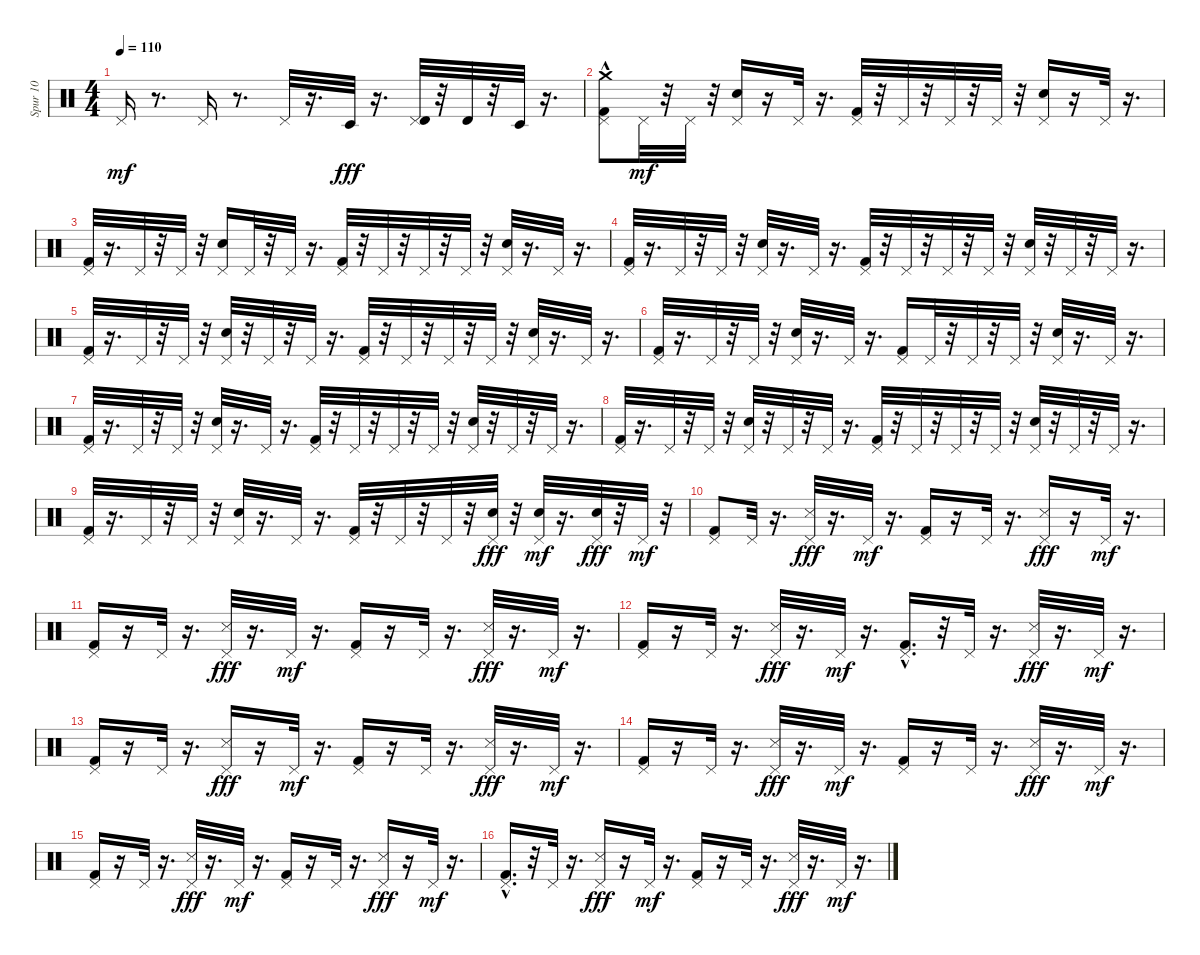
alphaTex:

\track ("Spur 10" "Spur 10") {instrument percussion}
\staff {score}
\articulation defaults
\ts (4 4)
\tempo 110
\clef neutral
\ks c "Pedal Hi-Hat (hit)".16{dy mf}
r.8{d} "Pedal Hi-Hat (hit)".16 r.8{d} "Pedal Hi-Hat (hit)".32 r.16{d} "Timbale low (hit)".32{dy fff} r.16{d} ("Pedal Hi-Hat (hit)" "Timbale high (hit)").32 r.32 "Timbale high (hit)".32 r.32 "Timbale low (hit)".32 r.16{d} |
("Kick (hit) 2" "Pedal Hi-Hat (hit)" "Crash medium (hit)"{hac}).8 "Pedal Hi-Hat (hit)".32{dy mf} r.32 "Pedal Hi-Hat (hit)".32 r.32 ("Electric Snare (hit)" "Pedal Hi-Hat (hit)").16 r.16 "Pedal Hi-Hat (hit)".32 r.16{d} ("Kick (hit) 2" "Pedal Hi-Hat (hit)").32 r.32 "Pedal Hi-Hat (hit)".32 r.32 "Pedal Hi-Hat (hit)".32 r.32 "Pedal Hi-Hat (hit)".32 r.32 ("Electric Snare (hit)" "Pedal Hi-Hat (hit)").16 r.16 "Pedal Hi-Hat (hit)".32 r.16{d} |
("Kick (hit) 2" "Pedal Hi-Hat (hit)").32 r.16{d} "Pedal Hi-Hat (hit)".32 r.32 "Pedal Hi-Hat (hit)".32 r.32 ("Electric Snare (hit)" "Pedal Hi-Hat (hit)").16 "Pedal Hi-Hat (hit)".32 r.32 "Pedal Hi-Hat (hit)".32 r.16{d} ("Kick (hit) 2" "Pedal Hi-Hat (hit)").32 r.32 "Pedal Hi-Hat (hit)".32 r.32 "Pedal Hi-Hat (hit)".32 r.32 "Pedal Hi-Hat (hit)".32 r.32 ("Electric Snare (hit)" "Pedal Hi-Hat (hit)").32 r.16{d} "Pedal Hi-Hat (hit)".32 r.16{d} |
("Kick (hit) 2" "Pedal Hi-Hat (hit)").32 r.16{d} "Pedal Hi-Hat (hit)".32 r.32 "Pedal Hi-Hat (hit)".32 r.32 ("Electric Snare (hit)" "Pedal Hi-Hat (hit)").32 r.16{d} "Pedal Hi-Hat (hit)".32 r.16{d} ("Kick (hit) 2" "Pedal Hi-Hat (hit)").32 r.32 "Pedal Hi-Hat (hit)".32 r.32 "Pedal Hi-Hat (hit)".32 r.32 "Pedal Hi-Hat (hit)".32 r.32 ("Electric Snare (hit)" "Pedal Hi-Hat (hit)").32 r.32 "Pedal Hi-Hat (hit)".32 r.32 "Pedal Hi-Hat (hit)".32 r.16{d} |
("Kick (hit) 2" "Pedal Hi-Hat (hit)").32 r.16{d} "Pedal Hi-Hat (hit)".32 r.32 "Pedal Hi-Hat (hit)".32 r.32 ("Electric Snare (hit)" "Pedal Hi-Hat (hit)").32 r.32 "Pedal Hi-Hat (hit)".32 r.32 "Pedal Hi-Hat (hit)".32 r.16{d} ("Kick (hit) 2" "Pedal Hi-Hat (hit)").32 r.32 "Pedal Hi-Hat (hit)".32 r.32 "Pedal Hi-Hat (hit)".32 r.32 "Pedal Hi-Hat (hit)".32 r.32 ("Electric Snare (hit)" "Pedal Hi-Hat (hit)").32 r.16{d} "Pedal Hi-Hat (hit)".32 r.16{d} |
("Kick (hit) 2" "Pedal Hi-Hat (hit)").32 r.16{d} "Pedal Hi-Hat (hit)".32 r.32 "Pedal Hi-Hat (hit)".32 r.32 ("Electric Snare (hit)" "Pedal Hi-Hat (hit)").32 r.16{d} "Pedal Hi-Hat (hit)".32 r.16{d} ("Kick (hit) 2" "Pedal Hi-Hat (hit)").16 "Pedal Hi-Hat (hit)".32 r.32 "Pedal Hi-Hat (hit)".32 r.32 "Pedal Hi-Hat (hit)".32 r.32 ("Electric Snare (hit)" "Pedal Hi-Hat (hit)").32 r.16{d} "Pedal Hi-Hat (hit)".32 r.16{d} |
("Kick (hit) 2" "Pedal Hi-Hat (hit)").32 r.16{d} "Pedal Hi-Hat (hit)".32 r.32 "Pedal Hi-Hat (hit)".32 r.32 ("Electric Snare (hit)" "Pedal Hi-Hat (hit)").32 r.16{d} "Pedal Hi-Hat (hit)".32 r.16{d} ("Kick (hit) 2" "Pedal Hi-Hat (hit)").32 r.32 "Pedal Hi-Hat (hit)".32 r.32 "Pedal Hi-Hat (hit)".32 r.32 "Pedal Hi-Hat (hit)".32 r.32 ("Electric Snare (hit)" "Pedal Hi-Hat (hit)").32 r.32 "Pedal Hi-Hat (hit)".32 r.32 "Pedal Hi-Hat (hit)".32 r.16{d} |
("Kick (hit) 2" "Pedal Hi-Hat (hit)").32 r.16{d} "Pedal Hi-Hat (hit)".32 r.32 "Pedal Hi-Hat (hit)".32 r.32 ("Electric Snare (hit)" "Pedal Hi-Hat (hit)").32 r.32 "Pedal Hi-Hat (hit)".32 r.32 "Pedal Hi-Hat (hit)".32 r.16{d} ("Kick (hit) 2" "Pedal Hi-Hat (hit)").32 r.32 "Pedal Hi-Hat (hit)".32 r.32 "Pedal Hi-Hat (hit)".32 r.32 "Pedal Hi-Hat (hit)".32 r.32 ("Electric Snare (hit)" "Pedal Hi-Hat (hit)").32 r.32 "Pedal Hi-Hat (hit)".32 r.32 "Pedal Hi-Hat (hit)".32 r.16{d} |
("Kick (hit) 2" "Pedal Hi-Hat (hit)").32 r.16{d} "Pedal Hi-Hat (hit)".32 r.32 "Pedal Hi-Hat (hit)".32 r.32 ("Electric Snare (hit)" "Pedal Hi-Hat (hit)").32 r.16{d} "Pedal Hi-Hat (hit)".32 r.16{d} ("Kick (hit) 2" "Pedal Hi-Hat (hit)").32 r.32 "Pedal Hi-Hat (hit)".32 r.32 "Pedal Hi-Hat (hit)".32 r.32 ("Pedal Hi-Hat (hit)" "Electric Snare (hit)").32{dy fff} r.32 ("Electric Snare (hit)" "Pedal Hi-Hat (hit)").32{dy mf} r.16{d} ("Pedal Hi-Hat (hit)" "Electric Snare (hit)").32{dy fff} r.32 "Pedal Hi-Hat (hit)".32{dy mf} r.32 |
("Kick (hit) 2" "Pedal Hi-Hat (hit)").8 "Pedal Hi-Hat (hit)".32 r.16{d} ("Pedal Hi-Hat (hit)" "Snare (side stick) 3").32{dy fff} r.16{d} "Pedal Hi-Hat (hit)".32{dy mf} r.16{d} ("Kick (hit) 2" "Pedal Hi-Hat (hit)").16 r.16 "Pedal Hi-Hat (hit)".32 r.16{d} ("Pedal Hi-Hat (hit)" "Snare (side stick) 3").16{dy fff} r.16 "Pedal Hi-Hat (hit)".32{dy mf} r.16{d} |
("Kick (hit) 2" "Pedal Hi-Hat (hit)").16 r.16 "Pedal Hi-Hat (hit)".32 r.16{d} ("Pedal Hi-Hat (hit)" "Snare (side stick) 3").32{dy fff} r.16{d} "Pedal Hi-Hat (hit)".32{dy mf} r.16{d} ("Kick (hit) 2" "Pedal Hi-Hat (hit)").16 r.16 "Pedal Hi-Hat (hit)".32 r.16{d} ("Pedal Hi-Hat (hit)" "Snare (side stick) 3").32{dy fff} r.16{d} "Pedal Hi-Hat (hit)".32{dy mf} r.16{d} |
("Kick (hit) 2" "Pedal Hi-Hat (hit)").16 r.16 "Pedal Hi-Hat (hit)".32 r.16{d} ("Pedal Hi-Hat (hit)" "Snare (side stick) 3").32{dy fff} r.16{d} "Pedal Hi-Hat (hit)".32{dy mf} r.16{d} ("Kick (hit) 2"{hac} "Pedal Hi-Hat (hit)").16{d} r.32 "Pedal Hi-Hat (hit)".32 r.16{d} ("Pedal Hi-Hat (hit)" "Snare (side stick) 3").32{dy fff} r.16{d} "Pedal Hi-Hat (hit)".32{dy mf} r.16{d} |
("Kick (hit) 2" "Pedal Hi-Hat (hit)").16 r.16 "Pedal Hi-Hat (hit)".32 r.16{d} ("Pedal Hi-Hat (hit)" "Snare (side stick) 3").16{dy fff} r.16 "Pedal Hi-Hat (hit)".32{dy mf} r.16{d} ("Kick (hit) 2" "Pedal Hi-Hat (hit)").16 r.16 "Pedal Hi-Hat (hit)".32 r.16{d} ("Pedal Hi-Hat (hit)" "Snare (side stick) 3").32{dy fff} r.16{d} "Pedal Hi-Hat (hit)".32{dy mf} r.16{d} |
("Kick (hit) 2" "Pedal Hi-Hat (hit)").16 r.16 "Pedal Hi-Hat (hit)".32 r.16{d} ("Pedal Hi-Hat (hit)" "Snare (side stick) 3").32{dy fff} r.16{d} "Pedal Hi-Hat (hit)".32{dy mf} r.16{d} ("Kick (hit) 2" "Pedal Hi-Hat (hit)").16 r.16 "Pedal Hi-Hat (hit)".32 r.16{d} ("Pedal Hi-Hat (hit)" "Snare (side stick) 3").32{dy fff} r.16{d} "Pedal Hi-Hat (hit)".32{dy mf} r.16{d} |
("Kick (hit) 2" "Pedal Hi-Hat (hit)").16 r.16 "Pedal Hi-Hat (hit)".32 r.16{d} ("Pedal Hi-Hat (hit)" "Snare (side stick) 3").32{dy fff} r.16{d} "Pedal Hi-Hat (hit)".32{dy mf} r.16{d} ("Kick (hit) 2" "Pedal Hi-Hat (hit)").16 r.16 "Pedal Hi-Hat (hit)".32 r.16{d} ("Pedal Hi-Hat (hit)" "Snare (side stick) 3").16{dy fff} r.16 "Pedal Hi-Hat (hit)".32{dy mf} r.16{d} |
("Kick (hit) 2"{hac} "Pedal Hi-Hat (hit)").16{d} r.32 "Pedal Hi-Hat (hit)".32 r.16{d} ("Pedal Hi-Hat (hit)" "Snare (side stick) 3").16{dy fff} r.16 "Pedal Hi-Hat (hit)".32{dy mf} r.16{d} ("Kick (hit) 2" "Pedal Hi-Hat (hit)").16 r.16 "Pedal Hi-Hat (hit)".32 r.16{d} ("Pedal Hi-Hat (hit)" "Snare (side stick) 3").32{dy fff} r.16{d} "Pedal Hi-Hat (hit)".32{dy mf} r.16{d}
